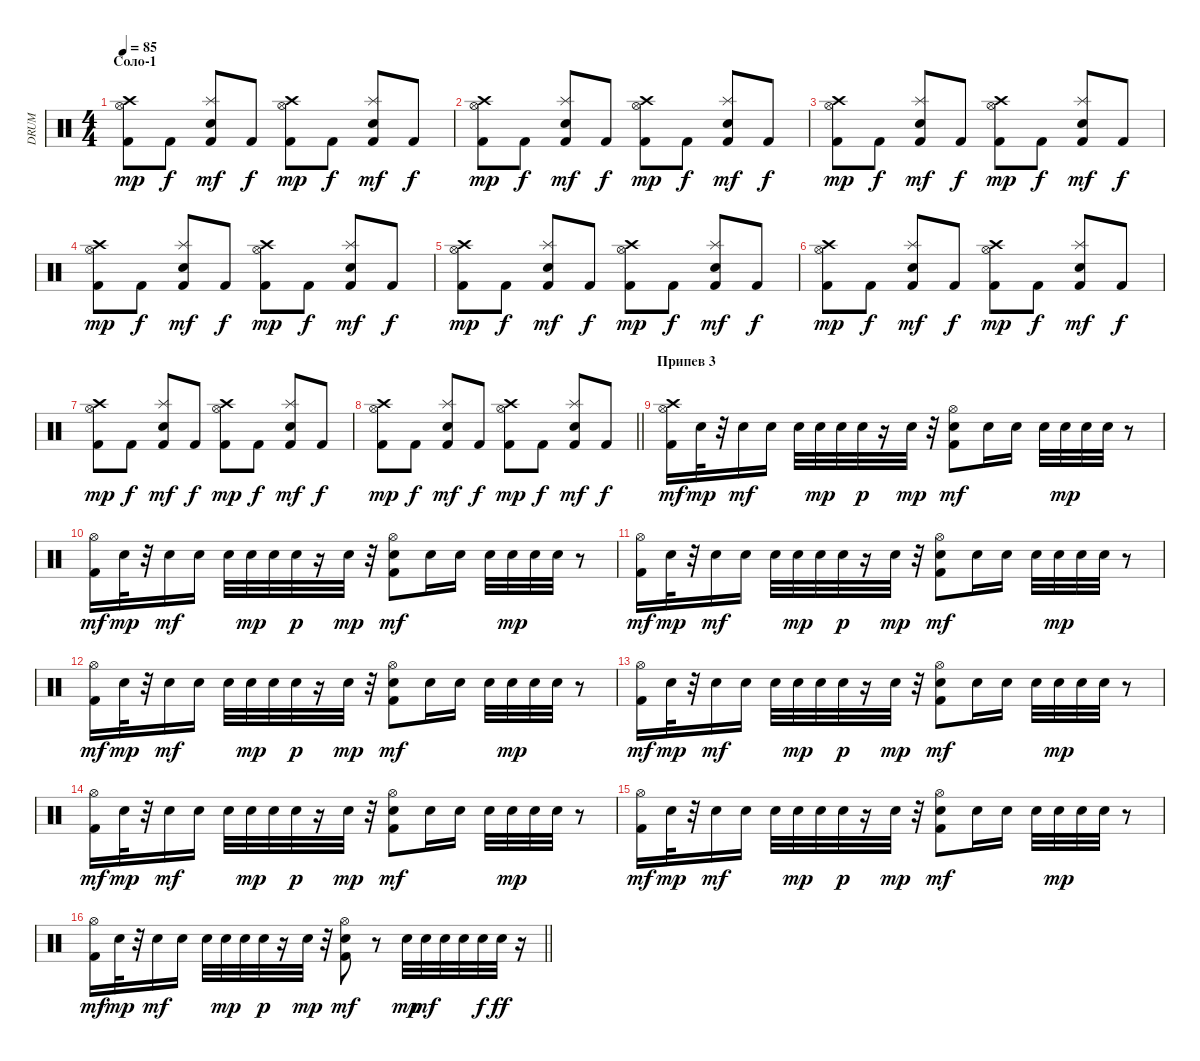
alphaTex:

\track ("DRUM" "DRUM") {instrument percussion}
\staff {score}
\articulation defaults
\ts (4 4)
\section ("" "Соло-1")
\tempo 85
\clef neutral
\ks c
("Hi-Hat (open)" "Crash high (hit)" "Kick (hit) 2").8{dy mp} "Kick (hit) 2".8{dy f} ("Splash (hit)" "Electric Snare (hit)" "Kick (hit) 2").8{dy mf} "Kick (hit) 2".8{dy f} ("Hi-Hat (open)" "Crash high (hit)" "Kick (hit) 2").8{dy mp} "Kick (hit) 2".8{dy f} ("Splash (hit)" "Electric Snare (hit)" "Kick (hit) 2").8{dy mf} "Kick (hit) 2".8{dy f} |
("Hi-Hat (open)" "Crash high (hit)" "Kick (hit) 2").8{dy mp} "Kick (hit) 2".8{dy f} ("Splash (hit)" "Electric Snare (hit)" "Kick (hit) 2").8{dy mf} "Kick (hit) 2".8{dy f} ("Hi-Hat (open)" "Crash high (hit)" "Kick (hit) 2").8{dy mp} "Kick (hit) 2".8{dy f} ("Splash (hit)" "Electric Snare (hit)" "Kick (hit) 2").8{dy mf} "Kick (hit) 2".8{dy f} |
("Hi-Hat (open)" "Crash high (hit)" "Kick (hit) 2").8{dy mp} "Kick (hit) 2".8{dy f} ("Splash (hit)" "Electric Snare (hit)" "Kick (hit) 2").8{dy mf} "Kick (hit) 2".8{dy f} ("Hi-Hat (open)" "Crash high (hit)" "Kick (hit) 2").8{dy mp} "Kick (hit) 2".8{dy f} ("Splash (hit)" "Electric Snare (hit)" "Kick (hit) 2").8{dy mf} "Kick (hit) 2".8{dy f} |
("Hi-Hat (open)" "Crash high (hit)" "Kick (hit) 2").8{dy mp} "Kick (hit) 2".8{dy f} ("Splash (hit)" "Electric Snare (hit)" "Kick (hit) 2").8{dy mf} "Kick (hit) 2".8{dy f} ("Hi-Hat (open)" "Crash high (hit)" "Kick (hit) 2").8{dy mp} "Kick (hit) 2".8{dy f} ("Splash (hit)" "Electric Snare (hit)" "Kick (hit) 2").8{dy mf} "Kick (hit) 2".8{dy f} |
("Hi-Hat (open)" "Crash high (hit)" "Kick (hit) 2").8{dy mp} "Kick (hit) 2".8{dy f} ("Splash (hit)" "Electric Snare (hit)" "Kick (hit) 2").8{dy mf} "Kick (hit) 2".8{dy f} ("Hi-Hat (open)" "Crash high (hit)" "Kick (hit) 2").8{dy mp} "Kick (hit) 2".8{dy f} ("Splash (hit)" "Electric Snare (hit)" "Kick (hit) 2").8{dy mf} "Kick (hit) 2".8{dy f} |
("Hi-Hat (open)" "Crash high (hit)" "Kick (hit) 2").8{dy mp} "Kick (hit) 2".8{dy f} ("Splash (hit)" "Electric Snare (hit)" "Kick (hit) 2").8{dy mf} "Kick (hit) 2".8{dy f} ("Hi-Hat (open)" "Crash high (hit)" "Kick (hit) 2").8{dy mp} "Kick (hit) 2".8{dy f} ("Splash (hit)" "Electric Snare (hit)" "Kick (hit) 2").8{dy mf} "Kick (hit) 2".8{dy f} |
("Hi-Hat (open)" "Crash high (hit)" "Kick (hit) 2").8{dy mp} "Kick (hit) 2".8{dy f} ("Splash (hit)" "Electric Snare (hit)" "Kick (hit) 2").8{dy mf} "Kick (hit) 2".8{dy f} ("Hi-Hat (open)" "Crash high (hit)" "Kick (hit) 2").8{dy mp} "Kick (hit) 2".8{dy f} ("Splash (hit)" "Electric Snare (hit)" "Kick (hit) 2").8{dy mf} "Kick (hit) 2".8{dy f} |
\barLineRight lightlight
("Hi-Hat (open)" "Crash high (hit)" "Kick (hit) 2").8{dy mp} "Kick (hit) 2".8{dy f} ("Splash (hit)" "Electric Snare (hit)" "Kick (hit) 2").8{dy mf} "Kick (hit) 2".8{dy f} ("Hi-Hat (open)" "Crash high (hit)" "Kick (hit) 2").8{dy mp} "Kick (hit) 2".8{dy f} ("Splash (hit)" "Electric Snare (hit)" "Kick (hit) 2").8{dy mf} "Kick (hit) 2".8{dy f} |
\section ("" "Припев 3")
("Crash high (hit)" "Hi-Hat (open)" "Kick (hit) 2").16{dy mf} "Snare (hit) 2".32{dy mp} r.32 "Snare (hit) 2".16{dy mf} "Snare (hit) 2".16 "Snare (hit) 2".32 "Snare (hit) 2".32{dy mp} "Snare (hit) 2".32 "Snare (hit) 2".32{dy p} r.16 "Snare (hit) 2".32{dy mp} r.32 ("Snare (hit) 2" "Hi-Hat (open)" "Kick (hit) 2").8{dy mf} "Snare (hit) 2".16 "Snare (hit) 2".16 "Snare (hit) 2".32 "Snare (hit) 2".32{dy mp} "Snare (hit) 2".32 "Snare (hit) 2".32 r.8 |
("Hi-Hat (open)" "Kick (hit) 2").16{dy mf} "Snare (hit) 2".32{dy mp} r.32 "Snare (hit) 2".16{dy mf} "Snare (hit) 2".16 "Snare (hit) 2".32 "Snare (hit) 2".32{dy mp} "Snare (hit) 2".32 "Snare (hit) 2".32{dy p} r.16 "Snare (hit) 2".32{dy mp} r.32 ("Snare (hit) 2" "Hi-Hat (open)" "Kick (hit) 2").8{dy mf} "Snare (hit) 2".16 "Snare (hit) 2".16 "Snare (hit) 2".32 "Snare (hit) 2".32{dy mp} "Snare (hit) 2".32 "Snare (hit) 2".32 r.8 |
("Hi-Hat (open)" "Kick (hit) 2").16{dy mf} "Snare (hit) 2".32{dy mp} r.32 "Snare (hit) 2".16{dy mf} "Snare (hit) 2".16 "Snare (hit) 2".32 "Snare (hit) 2".32{dy mp} "Snare (hit) 2".32 "Snare (hit) 2".32{dy p} r.16 "Snare (hit) 2".32{dy mp} r.32 ("Snare (hit) 2" "Hi-Hat (open)" "Kick (hit) 2").8{dy mf} "Snare (hit) 2".16 "Snare (hit) 2".16 "Snare (hit) 2".32 "Snare (hit) 2".32{dy mp} "Snare (hit) 2".32 "Snare (hit) 2".32 r.8 |
("Hi-Hat (open)" "Kick (hit) 2").16{dy mf} "Snare (hit) 2".32{dy mp} r.32 "Snare (hit) 2".16{dy mf} "Snare (hit) 2".16 "Snare (hit) 2".32 "Snare (hit) 2".32{dy mp} "Snare (hit) 2".32 "Snare (hit) 2".32{dy p} r.16 "Snare (hit) 2".32{dy mp} r.32 ("Snare (hit) 2" "Hi-Hat (open)" "Kick (hit) 2").8{dy mf} "Snare (hit) 2".16 "Snare (hit) 2".16 "Snare (hit) 2".32 "Snare (hit) 2".32{dy mp} "Snare (hit) 2".32 "Snare (hit) 2".32 r.8 |
("Hi-Hat (open)" "Kick (hit) 2").16{dy mf} "Snare (hit) 2".32{dy mp} r.32 "Snare (hit) 2".16{dy mf} "Snare (hit) 2".16 "Snare (hit) 2".32 "Snare (hit) 2".32{dy mp} "Snare (hit) 2".32 "Snare (hit) 2".32{dy p} r.16 "Snare (hit) 2".32{dy mp} r.32 ("Snare (hit) 2" "Hi-Hat (open)" "Kick (hit) 2").8{dy mf} "Snare (hit) 2".16 "Snare (hit) 2".16 "Snare (hit) 2".32 "Snare (hit) 2".32{dy mp} "Snare (hit) 2".32 "Snare (hit) 2".32 r.8 |
("Hi-Hat (open)" "Kick (hit) 2").16{dy mf} "Snare (hit) 2".32{dy mp} r.32 "Snare (hit) 2".16{dy mf} "Snare (hit) 2".16 "Snare (hit) 2".32 "Snare (hit) 2".32{dy mp} "Snare (hit) 2".32 "Snare (hit) 2".32{dy p} r.16 "Snare (hit) 2".32{dy mp} r.32 ("Snare (hit) 2" "Hi-Hat (open)" "Kick (hit) 2").8{dy mf} "Snare (hit) 2".16 "Snare (hit) 2".16 "Snare (hit) 2".32 "Snare (hit) 2".32{dy mp} "Snare (hit) 2".32 "Snare (hit) 2".32 r.8 |
("Hi-Hat (open)" "Kick (hit) 2").16{dy mf} "Snare (hit) 2".32{dy mp} r.32 "Snare (hit) 2".16{dy mf} "Snare (hit) 2".16 "Snare (hit) 2".32 "Snare (hit) 2".32{dy mp} "Snare (hit) 2".32 "Snare (hit) 2".32{dy p} r.16 "Snare (hit) 2".32{dy mp} r.32 ("Snare (hit) 2" "Hi-Hat (open)" "Kick (hit) 2").8{dy mf} "Snare (hit) 2".16 "Snare (hit) 2".16 "Snare (hit) 2".32 "Snare (hit) 2".32{dy mp} "Snare (hit) 2".32 "Snare (hit) 2".32 r.8 |
\barLineRight lightlight
("Hi-Hat (open)" "Kick (hit) 2").16{dy mf} "Snare (hit) 2".32{dy mp} r.32 "Snare (hit) 2".16{dy mf} "Snare (hit) 2".16 "Snare (hit) 2".32 "Snare (hit) 2".32{dy mp} "Snare (hit) 2".32 "Snare (hit) 2".32{dy p} r.16 "Snare (hit) 2".32{dy mp} r.32 ("Snare (hit) 2" "Hi-Hat (open)" "Kick (hit) 2").8{dy mf} r.8 "Snare (hit) 2".32{dy mp} "Snare (hit) 2".32{dy mf} "Snare (hit) 2".32 "Snare (hit) 2".32 "Snare (hit) 2".32{dy f} "Snare (hit) 2".32{dy ff} r.16
